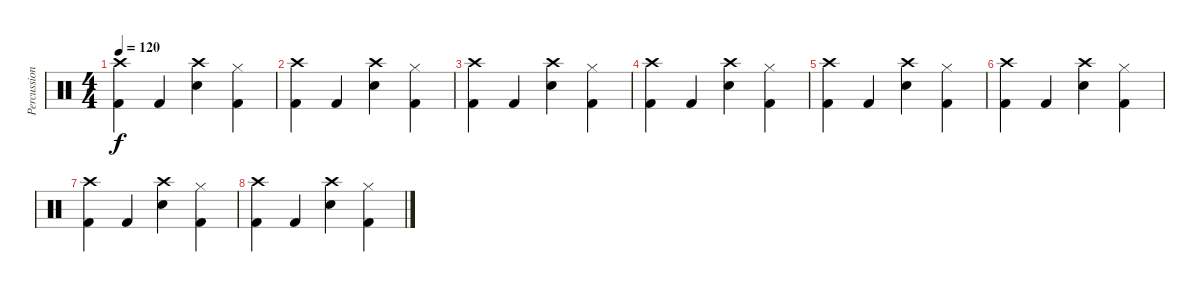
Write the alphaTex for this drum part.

\track ("Percussion" "Percussion") {instrument percussion}
\staff {score}
\articulation defaults
\ts (4 4)
\tempo 120
\clef neutral
\ks c
("Crash high (hit)" "Kick (hit) 2").4{dy f} "Kick (hit) 2".4 ("Crash high (hit)" "Electric Snare (hit)").4 ("Hi-Hat (closed)" "Kick (hit) 2").4 |
("Crash high (hit)" "Kick (hit) 2").4 "Kick (hit) 2".4 ("Crash high (hit)" "Electric Snare (hit)").4 ("Hi-Hat (closed)" "Kick (hit) 2").4 |
("Crash high (hit)" "Kick (hit) 2").4 "Kick (hit) 2".4 ("Crash high (hit)" "Electric Snare (hit)").4 ("Hi-Hat (closed)" "Kick (hit) 2").4 |
("Crash high (hit)" "Kick (hit) 2").4 "Kick (hit) 2".4 ("Crash high (hit)" "Electric Snare (hit)").4 ("Hi-Hat (closed)" "Kick (hit) 2").4 |
("Crash high (hit)" "Kick (hit) 2").4 "Kick (hit) 2".4 ("Crash high (hit)" "Electric Snare (hit)").4 ("Hi-Hat (closed)" "Kick (hit) 2").4 |
("Crash high (hit)" "Kick (hit) 2").4 "Kick (hit) 2".4 ("Crash high (hit)" "Electric Snare (hit)").4 ("Hi-Hat (closed)" "Kick (hit) 2").4 |
("Crash high (hit)" "Kick (hit) 2").4 "Kick (hit) 2".4 ("Crash high (hit)" "Electric Snare (hit)").4 ("Hi-Hat (closed)" "Kick (hit) 2").4 |
("Crash high (hit)" "Kick (hit) 2").4 "Kick (hit) 2".4 ("Crash high (hit)" "Electric Snare (hit)").4 ("Hi-Hat (closed)" "Kick (hit) 2").4
